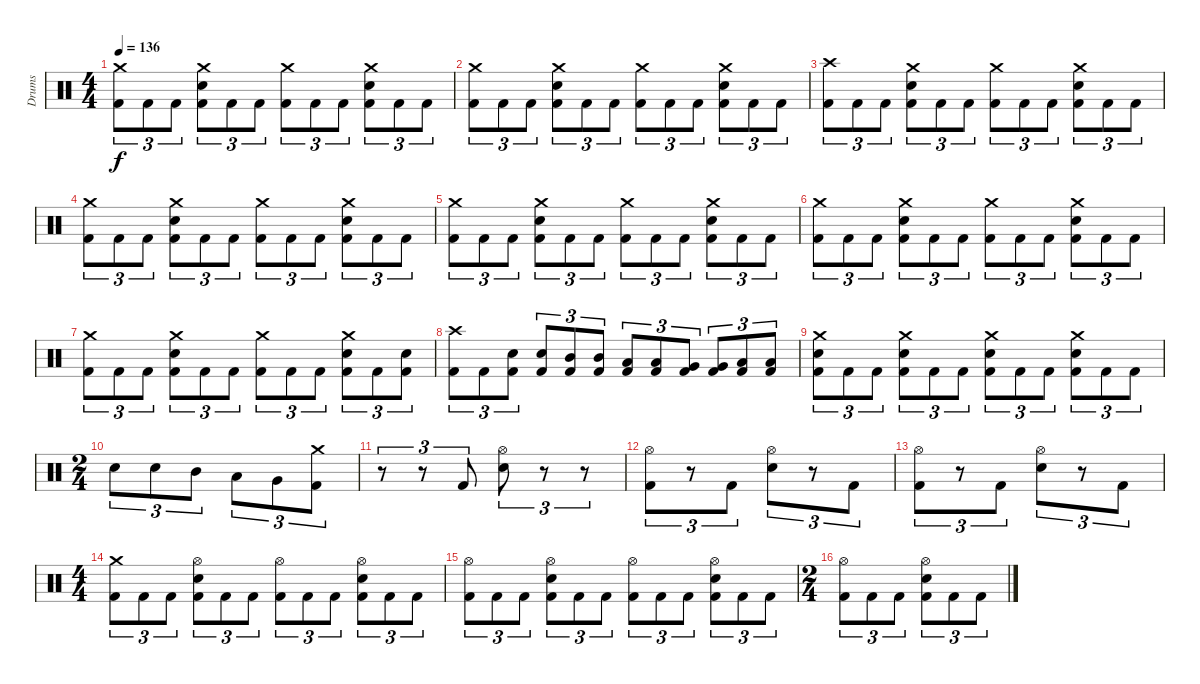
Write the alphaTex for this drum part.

\track ("Drums" "Drums") {instrument percussion}
\staff {score}
\articulation defaults
\ts (4 4)
\tempo 136
\clef neutral
\ks c
("Crash medium (hit)" "Kick (hit) 2").8{tu (3 2) dy f} "Kick (hit) 2".8{tu (3 2)} "Kick (hit) 2".8{tu (3 2)} ("Crash medium (hit)" "Electric Snare (hit)" "Kick (hit) 2").8{tu (3 2)} "Kick (hit) 2".8{tu (3 2)} "Kick (hit) 2".8{tu (3 2)} ("Crash medium (hit)" "Kick (hit) 2").8{tu (3 2)} "Kick (hit) 2".8{tu (3 2)} "Kick (hit) 2".8{tu (3 2)} ("Crash medium (hit)" "Electric Snare (hit)" "Kick (hit) 2").8{tu (3 2)} "Kick (hit) 2".8{tu (3 2)} "Kick (hit) 2".8{tu (3 2)} |
("Crash medium (hit)" "Kick (hit) 2").8{tu (3 2)} "Kick (hit) 2".8{tu (3 2)} "Kick (hit) 2".8{tu (3 2)} ("Crash medium (hit)" "Electric Snare (hit)" "Kick (hit) 2").8{tu (3 2)} "Kick (hit) 2".8{tu (3 2)} "Kick (hit) 2".8{tu (3 2)} ("Crash medium (hit)" "Kick (hit) 2").8{tu (3 2)} "Kick (hit) 2".8{tu (3 2)} "Kick (hit) 2".8{tu (3 2)} ("Crash medium (hit)" "Electric Snare (hit)" "Kick (hit) 2").8{tu (3 2)} "Kick (hit) 2".8{tu (3 2)} "Kick (hit) 2".8{tu (3 2)} |
("Crash high (hit)" "Kick (hit) 2").8{tu (3 2)} "Kick (hit) 2".8{tu (3 2)} "Kick (hit) 2".8{tu (3 2)} ("Crash medium (hit)" "Electric Snare (hit)" "Kick (hit) 2").8{tu (3 2)} "Kick (hit) 2".8{tu (3 2)} "Kick (hit) 2".8{tu (3 2)} ("Crash medium (hit)" "Kick (hit) 2").8{tu (3 2)} "Kick (hit) 2".8{tu (3 2)} "Kick (hit) 2".8{tu (3 2)} ("Crash medium (hit)" "Electric Snare (hit)" "Kick (hit) 2").8{tu (3 2)} "Kick (hit) 2".8{tu (3 2)} "Kick (hit) 2".8{tu (3 2)} |
("Crash medium (hit)" "Kick (hit) 2").8{tu (3 2)} "Kick (hit) 2".8{tu (3 2)} "Kick (hit) 2".8{tu (3 2)} ("Crash medium (hit)" "Electric Snare (hit)" "Kick (hit) 2").8{tu (3 2)} "Kick (hit) 2".8{tu (3 2)} "Kick (hit) 2".8{tu (3 2)} ("Crash medium (hit)" "Kick (hit) 2").8{tu (3 2)} "Kick (hit) 2".8{tu (3 2)} "Kick (hit) 2".8{tu (3 2)} ("Crash medium (hit)" "Electric Snare (hit)" "Kick (hit) 2").8{tu (3 2)} "Kick (hit) 2".8{tu (3 2)} "Kick (hit) 2".8{tu (3 2)} |
("Crash medium (hit)" "Kick (hit) 2").8{tu (3 2)} "Kick (hit) 2".8{tu (3 2)} "Kick (hit) 2".8{tu (3 2)} ("Crash medium (hit)" "Electric Snare (hit)" "Kick (hit) 2").8{tu (3 2)} "Kick (hit) 2".8{tu (3 2)} "Kick (hit) 2".8{tu (3 2)} ("Crash medium (hit)" "Kick (hit) 2").8{tu (3 2)} "Kick (hit) 2".8{tu (3 2)} "Kick (hit) 2".8{tu (3 2)} ("Crash medium (hit)" "Electric Snare (hit)" "Kick (hit) 2").8{tu (3 2)} "Kick (hit) 2".8{tu (3 2)} "Kick (hit) 2".8{tu (3 2)} |
("Crash medium (hit)" "Kick (hit) 2").8{tu (3 2)} "Kick (hit) 2".8{tu (3 2)} "Kick (hit) 2".8{tu (3 2)} ("Crash medium (hit)" "Electric Snare (hit)" "Kick (hit) 2").8{tu (3 2)} "Kick (hit) 2".8{tu (3 2)} "Kick (hit) 2".8{tu (3 2)} ("Crash medium (hit)" "Kick (hit) 2").8{tu (3 2)} "Kick (hit) 2".8{tu (3 2)} "Kick (hit) 2".8{tu (3 2)} ("Crash medium (hit)" "Electric Snare (hit)" "Kick (hit) 2").8{tu (3 2)} "Kick (hit) 2".8{tu (3 2)} "Kick (hit) 2".8{tu (3 2)} |
("Crash medium (hit)" "Kick (hit) 2").8{tu (3 2)} "Kick (hit) 2".8{tu (3 2)} "Kick (hit) 2".8{tu (3 2)} ("Crash medium (hit)" "Electric Snare (hit)" "Kick (hit) 2").8{tu (3 2)} "Kick (hit) 2".8{tu (3 2)} "Kick (hit) 2".8{tu (3 2)} ("Crash medium (hit)" "Kick (hit) 2").8{tu (3 2)} "Kick (hit) 2".8{tu (3 2)} "Kick (hit) 2".8{tu (3 2)} ("Crash medium (hit)" "Electric Snare (hit)" "Kick (hit) 2").8{tu (3 2)} "Kick (hit) 2".8{tu (3 2)} ("Electric Snare (hit)" "Kick (hit) 2").8{tu (3 2)} |
("Crash high (hit)" "Kick (hit) 2").8{tu (3 2)} "Kick (hit) 2".8{tu (3 2)} ("Electric Snare (hit)" "Kick (hit) 2").8{tu (3 2)} ("Electric Snare (hit)" "Kick (hit) 2").8{tu (3 2)} ("Mid Tom (hit)" "Kick (hit) 2").8{tu (3 2)} ("Mid Tom (hit)" "Kick (hit) 2").8{tu (3 2)} ("Low Tom (hit)" "Kick (hit) 2").8{tu (3 2)} ("Low Tom (hit)" "Kick (hit) 2").8{tu (3 2)} ("Very Low Tom (hit)" "Kick (hit) 2").8{tu (3 2)} ("Very Low Tom (hit)" "Kick (hit) 2").8{tu (3 2)} ("Low Floor Tom (hit)" "Kick (hit) 2").8{tu (3 2)} ("Low Floor Tom (hit)" "Kick (hit) 2").8{tu (3 2)} |
("Crash medium (hit)" "Electric Snare (hit)" "Kick (hit) 2").8{tu (3 2)} "Kick (hit) 2".8{tu (3 2)} "Kick (hit) 2".8{tu (3 2)} ("Crash medium (hit)" "Electric Snare (hit)" "Kick (hit) 2").8{tu (3 2)} "Kick (hit) 2".8{tu (3 2)} "Kick (hit) 2".8{tu (3 2)} ("Crash medium (hit)" "Electric Snare (hit)" "Kick (hit) 2").8{tu (3 2)} "Kick (hit) 2".8{tu (3 2)} "Kick (hit) 2".8{tu (3 2)} ("Crash medium (hit)" "Electric Snare (hit)" "Kick (hit) 2").8{tu (3 2)} "Kick (hit) 2".8{tu (3 2)} "Kick (hit) 2".8{tu (3 2)} |
\ts (2 4)
"Electric Snare (hit)".8{tu (3 2)} "Electric Snare (hit)".8{tu (3 2)} "Mid Tom (hit)".8{tu (3 2)} "Low Tom (hit)".8{tu (3 2)} "Very Low Tom (hit)".8{tu (3 2)} ("Crash medium (hit)" "Kick (hit) 2").8{tu (3 2)} |
r.8{tu (3 2)} r.8{tu (3 2)} "Kick (hit) 2".8{tu (3 2)} ("Hi-Hat (open)" "Electric Snare (hit)").8{tu (3 2)} r.8{tu (3 2)} r.8{tu (3 2)} |
("Hi-Hat (open)" "Kick (hit) 2").8{tu (3 2)} r.8{tu (3 2)} "Kick (hit) 2".8{tu (3 2)} ("Hi-Hat (open)" "Electric Snare (hit)").8{tu (3 2)} r.8{tu (3 2)} "Kick (hit) 2".8{tu (3 2)} |
("Hi-Hat (open)" "Kick (hit) 2").8{tu (3 2)} r.8{tu (3 2)} "Kick (hit) 2".8{tu (3 2)} ("Hi-Hat (open)" "Electric Snare (hit)").8{tu (3 2)} r.8{tu (3 2)} "Kick (hit) 2".8{tu (3 2)} |
\ts (4 4)
("Crash medium (hit)" "Kick (hit) 2").8{tu (3 2)} "Kick (hit) 2".8{tu (3 2)} "Kick (hit) 2".8{tu (3 2)} ("Hi-Hat (open)" "Electric Snare (hit)" "Kick (hit) 2").8{tu (3 2)} "Kick (hit) 2".8{tu (3 2)} "Kick (hit) 2".8{tu (3 2)} ("Hi-Hat (open)" "Kick (hit) 2").8{tu (3 2)} "Kick (hit) 2".8{tu (3 2)} "Kick (hit) 2".8{tu (3 2)} ("Hi-Hat (open)" "Electric Snare (hit)" "Kick (hit) 2").8{tu (3 2)} "Kick (hit) 2".8{tu (3 2)} "Kick (hit) 2".8{tu (3 2)} |
("Hi-Hat (open)" "Kick (hit) 2").8{tu (3 2)} "Kick (hit) 2".8{tu (3 2)} "Kick (hit) 2".8{tu (3 2)} ("Hi-Hat (open)" "Electric Snare (hit)" "Kick (hit) 2").8{tu (3 2)} "Kick (hit) 2".8{tu (3 2)} "Kick (hit) 2".8{tu (3 2)} ("Hi-Hat (open)" "Kick (hit) 2").8{tu (3 2)} "Kick (hit) 2".8{tu (3 2)} "Kick (hit) 2".8{tu (3 2)} ("Hi-Hat (open)" "Electric Snare (hit)" "Kick (hit) 2").8{tu (3 2)} "Kick (hit) 2".8{tu (3 2)} "Kick (hit) 2".8{tu (3 2)} |
\ts (2 4)
("Hi-Hat (open)" "Kick (hit) 2").8{tu (3 2)} "Kick (hit) 2".8{tu (3 2)} "Kick (hit) 2".8{tu (3 2)} ("Hi-Hat (open)" "Electric Snare (hit)" "Kick (hit) 2").8{tu (3 2)} "Kick (hit) 2".8{tu (3 2)} "Kick (hit) 2".8{tu (3 2)}
